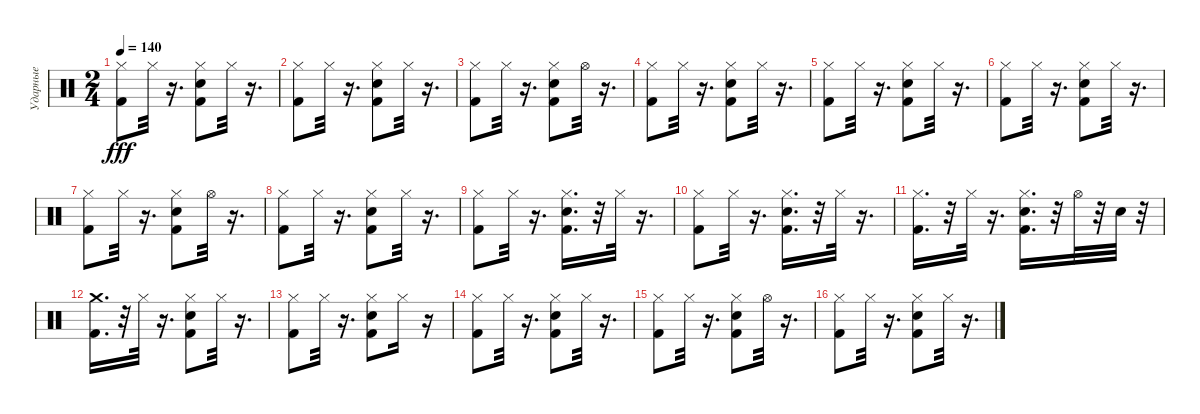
\track ("Ударные" "Ударные") {instrument percussion}
\staff {score}
\articulation defaults
\ts (2 4)
\tempo 140
\clef neutral
\ks c
("Kick (hit) 2" "Hi-Hat (closed)").8{dy fff} "Hi-Hat (closed)".32 r.16{d} ("Kick (hit) 2" "Hi-Hat (closed)" "Snare (hit) 2").8 "Hi-Hat (closed)".32 r.16{d} |
("Kick (hit) 2" "Hi-Hat (closed)").8 "Hi-Hat (closed)".32 r.16{d} ("Hi-Hat (closed)" "Snare (hit) 2" "Kick (hit) 2").8 "Hi-Hat (closed)".32 r.16{d} |
("Kick (hit) 2" "Hi-Hat (closed)").8 "Hi-Hat (closed)".32 r.16{d} ("Snare (hit) 2" "Kick (hit) 2" "Hi-Hat (closed)").8 "Hi-Hat (open)".32 r.16{d} |
("Kick (hit) 2" "Hi-Hat (closed)").8 "Hi-Hat (closed)".32 r.16{d} ("Snare (hit) 2" "Kick (hit) 2" "Hi-Hat (closed)").8 "Hi-Hat (closed)".32 r.16{d} |
("Kick (hit) 2" "Hi-Hat (closed)").8 "Hi-Hat (closed)".32 r.16{d} ("Snare (hit) 2" "Kick (hit) 2" "Hi-Hat (closed)").8 "Hi-Hat (closed)".32 r.16{d} |
("Kick (hit) 2" "Hi-Hat (closed)").8 "Hi-Hat (closed)".32 r.16{d} ("Kick (hit) 2" "Hi-Hat (closed)" "Snare (hit) 2").8 "Hi-Hat (closed)".32 r.16{d} |
("Kick (hit) 2" "Hi-Hat (closed)").8 "Hi-Hat (closed)".32 r.16{d} ("Kick (hit) 2" "Hi-Hat (closed)" "Snare (hit) 2").8 "Hi-Hat (open)".32 r.16{d} |
("Kick (hit) 2" "Hi-Hat (closed)").8 "Hi-Hat (closed)".32 r.16{d} ("Snare (hit) 2" "Kick (hit) 2" "Hi-Hat (closed)").8 "Hi-Hat (closed)".32 r.16{d} |
("Kick (hit) 2" "Hi-Hat (closed)").8 "Hi-Hat (closed)".32 r.16{d} ("Snare (hit) 2" "Kick (hit) 2" "Hi-Hat (closed)").16{d} r.32 "Hi-Hat (closed)".32 r.16{d} |
("Kick (hit) 2" "Hi-Hat (closed)").8 "Hi-Hat (closed)".32 r.16{d} ("Snare (hit) 2" "Kick (hit) 2" "Hi-Hat (closed)").16{d} r.32 "Hi-Hat (closed)".32 r.16{d} |
("Kick (hit) 2" "Hi-Hat (closed)").16{d} r.32 "Hi-Hat (closed)".32 r.16{d} ("Snare (hit) 2" "Kick (hit) 2" "Hi-Hat (closed)").16{d} r.32 "Hi-Hat (open)".32 r.32 "Snare (hit) 2".32 r.32 |
("Crash medium (hit)" "Kick (hit) 2").16{d} r.32 "Hi-Hat (closed)".32 r.16{d} ("Snare (hit) 2" "Hi-Hat (closed)" "Kick (hit) 2").8 "Hi-Hat (closed)".32 r.16{d} |
("Kick (hit) 2" "Hi-Hat (closed)").8 "Hi-Hat (closed)".32 r.16{d} ("Snare (hit) 2" "Kick (hit) 2" "Hi-Hat (closed)").8 "Hi-Hat (closed)".16 r.16 |
("Kick (hit) 2" "Hi-Hat (closed)").8 "Hi-Hat (closed)".32 r.16{d} ("Snare (hit) 2" "Kick (hit) 2" "Hi-Hat (closed)").8 "Hi-Hat (closed)".32 r.16{d} |
("Kick (hit) 2" "Hi-Hat (closed)").8 "Hi-Hat (closed)".32 r.16{d} ("Snare (hit) 2" "Hi-Hat (closed)" "Kick (hit) 2").8 "Hi-Hat (open)".32 r.16{d} |
("Kick (hit) 2" "Hi-Hat (closed)").8 "Hi-Hat (closed)".32 r.16{d} ("Hi-Hat (closed)" "Snare (hit) 2" "Kick (hit) 2").8 "Hi-Hat (closed)".32 r.16{d}
